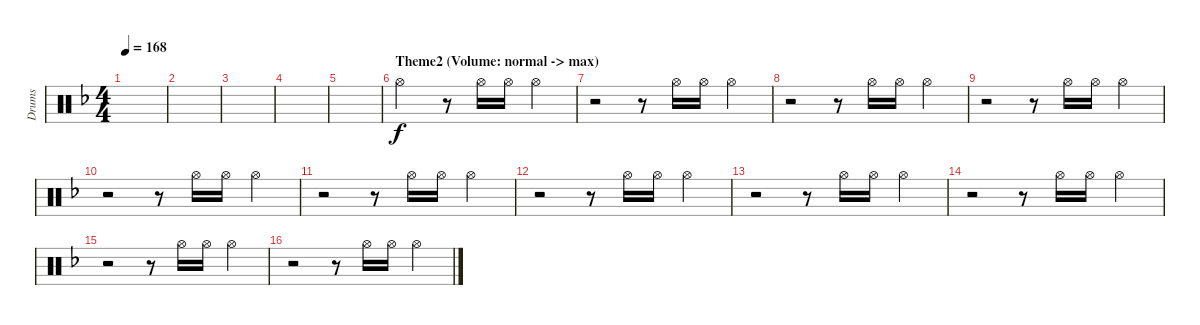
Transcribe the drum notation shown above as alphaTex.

\track ("Drums" "Drums") {instrument percussion}
\staff {score}
\articulation defaults
\ts (4 4)
\tempo 168
\clef neutral
\ks f
|
|
|
|
|
\section ("" "Theme2 (Volume: normal -> max)")
"Hi-Hat (open)".2 r.8 "Hi-Hat (open)".16 "Hi-Hat (open)".16 "Hi-Hat (open)".4 |
r.2 r.8 "Hi-Hat (open)".16 "Hi-Hat (open)".16 "Hi-Hat (open)".4 |
r.2 r.8 "Hi-Hat (open)".16 "Hi-Hat (open)".16 "Hi-Hat (open)".4 |
r.2 r.8 "Hi-Hat (open)".16 "Hi-Hat (open)".16 "Hi-Hat (open)".4 |
r.2 r.8 "Hi-Hat (open)".16 "Hi-Hat (open)".16 "Hi-Hat (open)".4 |
r.2 r.8 "Hi-Hat (open)".16 "Hi-Hat (open)".16 "Hi-Hat (open)".4 |
r.2 r.8 "Hi-Hat (open)".16 "Hi-Hat (open)".16 "Hi-Hat (open)".4 |
r.2 r.8 "Hi-Hat (open)".16 "Hi-Hat (open)".16 "Hi-Hat (open)".4 |
r.2 r.8 "Hi-Hat (open)".16 "Hi-Hat (open)".16 "Hi-Hat (open)".4 |
r.2 r.8 "Hi-Hat (open)".16 "Hi-Hat (open)".16 "Hi-Hat (open)".4 |
r.2 r.8 "Hi-Hat (open)".16 "Hi-Hat (open)".16 "Hi-Hat (open)".4
